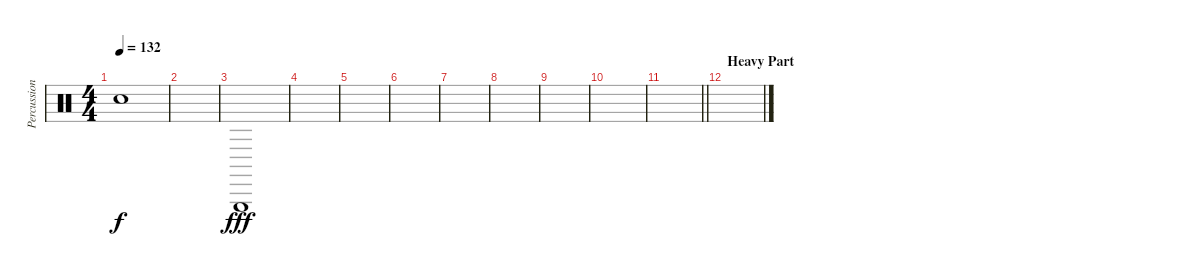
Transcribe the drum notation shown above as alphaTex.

\track ("Percussion / FX" "Percussion") {instrument percussion}
\staff {score}
\articulation defaults
\ts (4 4)
\tempo 132
\clef neutral
\ks c "Snare (hit)"{t}.1{dy f}
|
|
"Triangle (hit)".1{dy fff} |
|
|
|
|
|
|
|
\barLineRight lightlight
|
\section ("" "Heavy Part")
